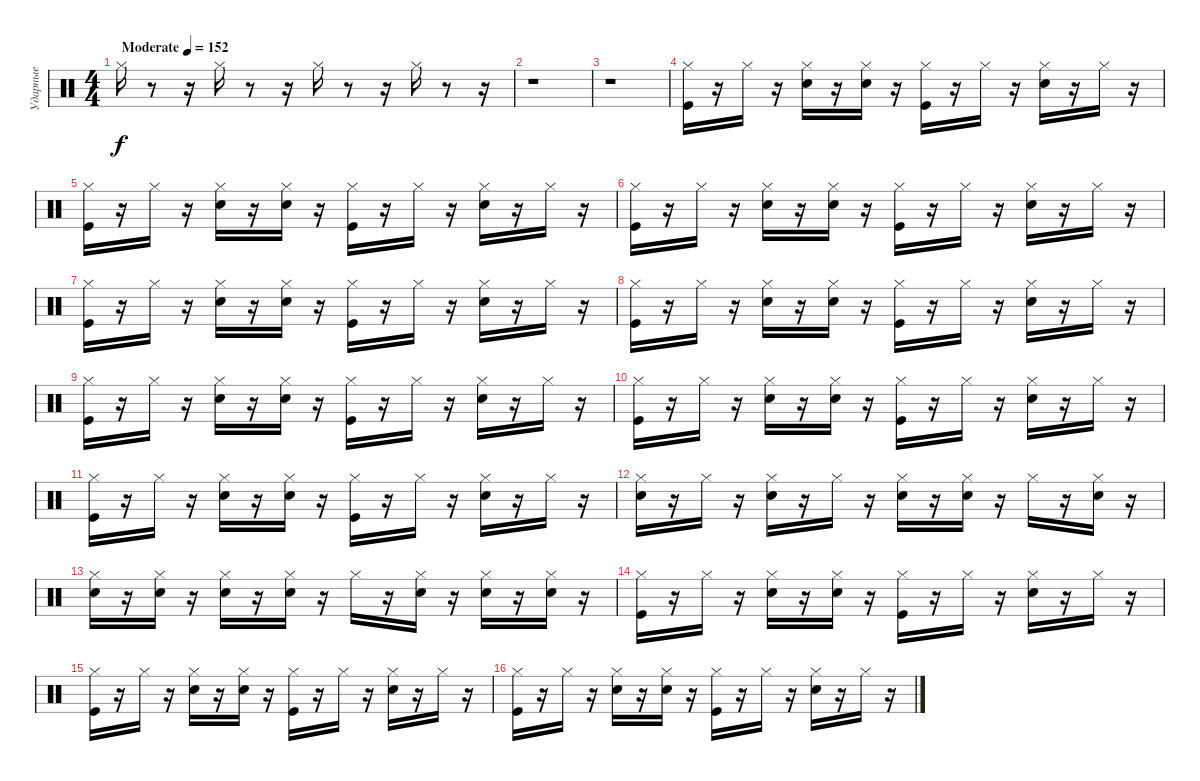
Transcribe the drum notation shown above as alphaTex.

\track ("Ударные" "Ударные") {instrument percussion}
\staff {score}
\articulation defaults
\ts (4 4)
\tempo (152 "Moderate")
\clef neutral
\ks c "Hi-Hat (closed)".16{dy f}
r.8 r.16 "Hi-Hat (closed)".16 r.8 r.16 "Hi-Hat (closed)".16 r.8 r.16 "Hi-Hat (closed)".16 r.8 r.16 |
r.1 |
r.1 |
("Kick (hit)" "Hi-Hat (closed)").16 r.16 "Hi-Hat (closed)".16 r.16 ("Electric Snare (hit)" "Hi-Hat (closed)").16 r.16 ("Electric Snare (hit)" "Hi-Hat (closed)").16 r.16 ("Kick (hit)" "Hi-Hat (closed)").16 r.16 "Hi-Hat (closed)".16 r.16 ("Hi-Hat (closed)" "Electric Snare (hit)").16 r.16 "Hi-Hat (closed)".16 r.16 |
("Kick (hit)" "Hi-Hat (closed)").16 r.16 "Hi-Hat (closed)".16 r.16 ("Electric Snare (hit)" "Hi-Hat (closed)").16 r.16 ("Electric Snare (hit)" "Hi-Hat (closed)").16 r.16 ("Kick (hit)" "Hi-Hat (closed)").16 r.16 "Hi-Hat (closed)".16 r.16 ("Electric Snare (hit)" "Hi-Hat (closed)").16 r.16 "Hi-Hat (closed)".16 r.16 |
("Kick (hit)" "Hi-Hat (closed)").16 r.16 "Hi-Hat (closed)".16 r.16 ("Electric Snare (hit)" "Hi-Hat (closed)").16 r.16 ("Electric Snare (hit)" "Hi-Hat (closed)").16 r.16 ("Kick (hit)" "Hi-Hat (closed)").16 r.16 "Hi-Hat (closed)".16 r.16 ("Electric Snare (hit)" "Hi-Hat (closed)").16 r.16 "Hi-Hat (closed)".16 r.16 |
("Kick (hit)" "Hi-Hat (closed)").16 r.16 "Hi-Hat (closed)".16 r.16 ("Electric Snare (hit)" "Hi-Hat (closed)").16 r.16 ("Electric Snare (hit)" "Hi-Hat (closed)").16 r.16 ("Hi-Hat (closed)" "Kick (hit)").16 r.16 "Hi-Hat (closed)".16 r.16 ("Electric Snare (hit)" "Hi-Hat (closed)").16 r.16 "Hi-Hat (closed)".16 r.16 |
("Kick (hit)" "Hi-Hat (closed)").16 r.16 "Hi-Hat (closed)".16 r.16 ("Electric Snare (hit)" "Hi-Hat (closed)").16 r.16 ("Electric Snare (hit)" "Hi-Hat (closed)").16 r.16 ("Kick (hit)" "Hi-Hat (closed)").16 r.16 "Hi-Hat (closed)".16 r.16 ("Electric Snare (hit)" "Hi-Hat (closed)").16 r.16 "Hi-Hat (closed)".16 r.16 |
("Kick (hit)" "Hi-Hat (closed)").16 r.16 "Hi-Hat (closed)".16 r.16 ("Electric Snare (hit)" "Hi-Hat (closed)").16 r.16 ("Electric Snare (hit)" "Hi-Hat (closed)").16 r.16 ("Kick (hit)" "Hi-Hat (closed)").16 r.16 "Hi-Hat (closed)".16 r.16 ("Electric Snare (hit)" "Hi-Hat (closed)").16 r.16 "Hi-Hat (closed)".16 r.16 |
("Kick (hit)" "Hi-Hat (closed)").16 r.16 "Hi-Hat (closed)".16 r.16 ("Hi-Hat (closed)" "Electric Snare (hit)").16 r.16 ("Electric Snare (hit)" "Hi-Hat (closed)").16 r.16 ("Kick (hit)" "Hi-Hat (closed)").16 r.16 "Hi-Hat (closed)".16 r.16 ("Electric Snare (hit)" "Hi-Hat (closed)").16 r.16 "Hi-Hat (closed)".16 r.16 |
("Kick (hit)" "Hi-Hat (closed)").16 r.16 "Hi-Hat (closed)".16 r.16 ("Electric Snare (hit)" "Hi-Hat (closed)").16 r.16 ("Electric Snare (hit)" "Hi-Hat (closed)").16 r.16 ("Kick (hit)" "Hi-Hat (closed)").16 r.16 "Hi-Hat (closed)".16 r.16 ("Electric Snare (hit)" "Hi-Hat (closed)").16 r.16 "Hi-Hat (closed)".16 r.16 |
("Electric Snare (hit)" "Hi-Hat (closed)").16 r.16 "Hi-Hat (closed)".16 r.16 ("Electric Snare (hit)" "Hi-Hat (closed)").16 r.16 "Hi-Hat (closed)".16 r.16 ("Electric Snare (hit)" "Hi-Hat (closed)").16 r.16 ("Electric Snare (hit)" "Hi-Hat (closed)").16 r.16 "Hi-Hat (closed)".16 r.16 ("Electric Snare (hit)" "Hi-Hat (closed)").16 r.16 |
("Hi-Hat (closed)" "Electric Snare (hit)").16 r.16 ("Electric Snare (hit)" "Hi-Hat (closed)").16 r.16 ("Electric Snare (hit)" "Hi-Hat (closed)").16 r.16 ("Electric Snare (hit)" "Hi-Hat (closed)").16 r.16 "Hi-Hat (closed)".16 r.16 ("Electric Snare (hit)" "Hi-Hat (closed)").16 r.16 ("Electric Snare (hit)" "Hi-Hat (closed)").16 r.16 ("Electric Snare (hit)" "Hi-Hat (closed)").16 r.16 |
("Kick (hit)" "Hi-Hat (closed)").16 r.16 "Hi-Hat (closed)".16 r.16 ("Electric Snare (hit)" "Hi-Hat (closed)").16 r.16 ("Hi-Hat (closed)" "Electric Snare (hit)").16 r.16 ("Kick (hit)" "Hi-Hat (closed)").16 r.16 "Hi-Hat (closed)".16 r.16 ("Electric Snare (hit)" "Hi-Hat (closed)").16 r.16 "Hi-Hat (closed)".16 r.16 |
("Kick (hit)" "Hi-Hat (closed)").16 r.16 "Hi-Hat (closed)".16 r.16 ("Electric Snare (hit)" "Hi-Hat (closed)").16 r.16 ("Electric Snare (hit)" "Hi-Hat (closed)").16 r.16 ("Kick (hit)" "Hi-Hat (closed)").16 r.16 "Hi-Hat (closed)".16 r.16 ("Hi-Hat (closed)" "Electric Snare (hit)").16 r.16 "Hi-Hat (closed)".16 r.16 |
("Kick (hit)" "Hi-Hat (closed)").16 r.16 "Hi-Hat (closed)".16 r.16 ("Electric Snare (hit)" "Hi-Hat (closed)").16 r.16 ("Electric Snare (hit)" "Hi-Hat (closed)").16 r.16 ("Kick (hit)" "Hi-Hat (closed)").16 r.16 "Hi-Hat (closed)".16 r.16 ("Electric Snare (hit)" "Hi-Hat (closed)").16 r.16 "Hi-Hat (closed)".16 r.16
